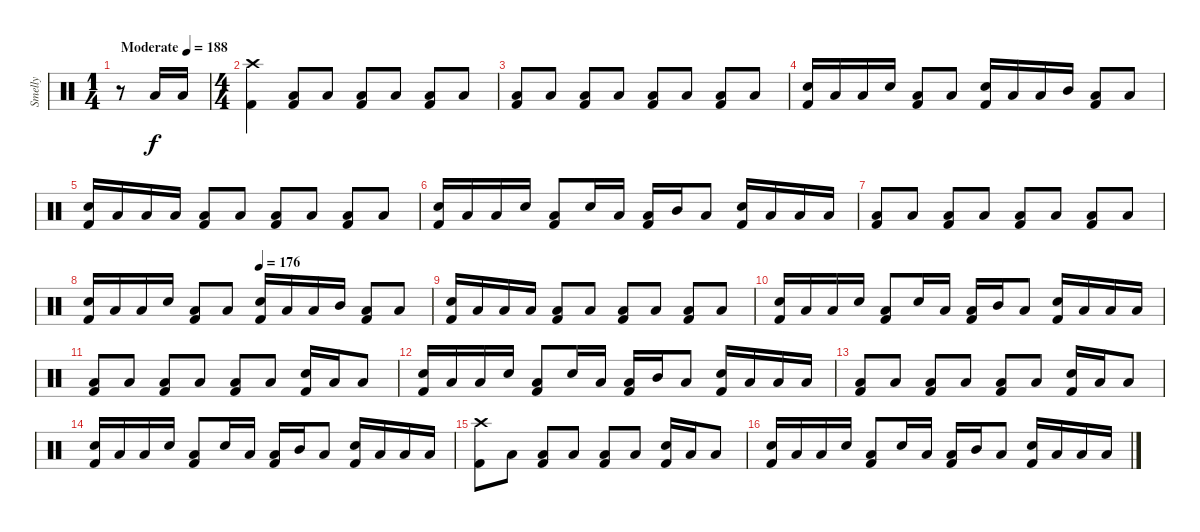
\track ("Smelly" "Smelly") {instrument percussion}
\staff {score}
\articulation defaults
\ts (1 4)
\tempo (188 "Moderate")
\clef neutral
\ks c
r.8{dy f} "Low Floor Tom (hit)".16 "Low Floor Tom (hit)".16 |
\ts (4 4)
("Crash high (hit)" "Kick (hit) 2").4 ("Low Floor Tom (hit)" "Kick (hit) 2").8 "Low Floor Tom (hit)".8 ("Low Floor Tom (hit)" "Kick (hit) 2").8 "Low Floor Tom (hit)".8 ("Low Floor Tom (hit)" "Kick (hit) 2").8 "Low Floor Tom (hit)".8 |
("Low Floor Tom (hit)" "Kick (hit) 2").8 "Low Floor Tom (hit)".8 ("Low Floor Tom (hit)" "Kick (hit) 2").8 "Low Floor Tom (hit)".8 ("Low Floor Tom (hit)" "Kick (hit) 2").8 "Low Floor Tom (hit)".8 ("Low Floor Tom (hit)" "Kick (hit) 2").8 "Low Floor Tom (hit)".8 |
("Electric Snare (hit)" "Kick (hit) 2").16 "Low Tom (hit)".16 "Low Floor Tom (hit)".16 "Electric Snare (hit)".16 ("Low Floor Tom (hit)" "Kick (hit) 2").8 "Low Floor Tom (hit)".8 ("Electric Snare (hit)" "Kick (hit) 2").16 "Low Tom (hit)".16 "Low Floor Tom (hit)".16 "Mid Tom (hit)".16 ("Low Floor Tom (hit)" "Kick (hit) 2").8 "Low Floor Tom (hit)".8 |
("Electric Snare (hit)" "Kick (hit) 2").16 "Low Tom (hit)".16 "Low Floor Tom (hit)".16 "Low Floor Tom (hit)".16 ("Low Floor Tom (hit)" "Kick (hit) 2").8 "Low Floor Tom (hit)".8 ("Low Floor Tom (hit)" "Kick (hit) 2").8 "Low Floor Tom (hit)".8 ("Low Floor Tom (hit)" "Kick (hit) 2").8 "Low Floor Tom (hit)".8 |
("Electric Snare (hit)" "Kick (hit) 2").16 "Low Tom (hit)".16 "Low Floor Tom (hit)".16 "Electric Snare (hit)".16 ("Low Floor Tom (hit)" "Kick (hit) 2").8 "Electric Snare (hit)".16 "Low Tom (hit)".16 ("Low Floor Tom (hit)" "Kick (hit) 2").16 "Mid Tom (hit)".16 "Low Floor Tom (hit)".8 ("Electric Snare (hit)" "Kick (hit) 2").16 "Low Tom (hit)".16 "Low Floor Tom (hit)".16 "Low Floor Tom (hit)".16 |
("Low Floor Tom (hit)" "Kick (hit) 2").8 "Low Floor Tom (hit)".8 ("Low Floor Tom (hit)" "Kick (hit) 2").8 "Low Floor Tom (hit)".8 ("Low Floor Tom (hit)" "Kick (hit) 2").8 "Low Floor Tom (hit)".8 ("Low Floor Tom (hit)" "Kick (hit) 2").8 "Low Floor Tom (hit)".8 |
\tempo (176 0.5)
("Electric Snare (hit)" "Kick (hit) 2").16 "Low Tom (hit)".16 "Low Floor Tom (hit)".16 "Electric Snare (hit)".16 ("Low Floor Tom (hit)" "Kick (hit) 2").8 "Low Floor Tom (hit)".8 ("Electric Snare (hit)" "Kick (hit) 2").16 "Low Tom (hit)".16 "Low Floor Tom (hit)".16 "Mid Tom (hit)".16 ("Low Floor Tom (hit)" "Kick (hit) 2").8 "Low Floor Tom (hit)".8 |
("Electric Snare (hit)" "Kick (hit) 2").16 "Low Tom (hit)".16 "Low Floor Tom (hit)".16 "Low Floor Tom (hit)".16 ("Low Floor Tom (hit)" "Kick (hit) 2").8 "Low Floor Tom (hit)".8 ("Low Floor Tom (hit)" "Kick (hit) 2").8 "Low Floor Tom (hit)".8 ("Low Floor Tom (hit)" "Kick (hit) 2").8 "Low Floor Tom (hit)".8 |
("Electric Snare (hit)" "Kick (hit) 2").16 "Low Tom (hit)".16 "Low Floor Tom (hit)".16 "Electric Snare (hit)".16 ("Low Floor Tom (hit)" "Kick (hit) 2").8 "Electric Snare (hit)".16 "Low Tom (hit)".16 ("Low Floor Tom (hit)" "Kick (hit) 2").16 "Mid Tom (hit)".16 "Low Floor Tom (hit)".8 ("Electric Snare (hit)" "Kick (hit) 2").16 "Low Tom (hit)".16 "Low Floor Tom (hit)".16 "Low Floor Tom (hit)".16 |
("Low Floor Tom (hit)" "Kick (hit) 2").8 "Low Floor Tom (hit)".8 ("Low Floor Tom (hit)" "Kick (hit) 2").8 "Low Floor Tom (hit)".8 ("Low Floor Tom (hit)" "Kick (hit) 2").8 "Low Floor Tom (hit)".8 ("Electric Snare (hit)" "Kick (hit) 2").16 "Low Tom (hit)".16 "Low Floor Tom (hit)".8 |
("Electric Snare (hit)" "Kick (hit) 2").16 "Low Tom (hit)".16 "Low Floor Tom (hit)".16 "Electric Snare (hit)".16 ("Low Floor Tom (hit)" "Kick (hit) 2").8 "Electric Snare (hit)".16 "Low Tom (hit)".16 ("Low Floor Tom (hit)" "Kick (hit) 2").16 "Mid Tom (hit)".16 "Low Floor Tom (hit)".8 ("Electric Snare (hit)" "Kick (hit) 2").16 "Low Tom (hit)".16 "Low Floor Tom (hit)".16 "Low Floor Tom (hit)".16 |
("Low Floor Tom (hit)" "Kick (hit) 2").8 "Low Floor Tom (hit)".8 ("Low Floor Tom (hit)" "Kick (hit) 2").8 "Low Floor Tom (hit)".8 ("Low Floor Tom (hit)" "Kick (hit) 2").8 "Low Floor Tom (hit)".8 ("Electric Snare (hit)" "Kick (hit) 2").16 "Low Tom (hit)".16 "Low Floor Tom (hit)".8 |
("Electric Snare (hit)" "Kick (hit) 2").16 "Low Tom (hit)".16 "Low Floor Tom (hit)".16 "Electric Snare (hit)".16 ("Low Floor Tom (hit)" "Kick (hit) 2").8 "Electric Snare (hit)".16 "Low Tom (hit)".16 ("Low Floor Tom (hit)" "Kick (hit) 2").16 "Mid Tom (hit)".16 "Low Floor Tom (hit)".8 ("Electric Snare (hit)" "Kick (hit) 2").16 "Low Tom (hit)".16 "Low Floor Tom (hit)".16 "Low Floor Tom (hit)".16 |
("Crash high (hit)" "Kick (hit) 2").8 "Low Floor Tom (hit)".8 ("Low Floor Tom (hit)" "Kick (hit) 2").8 "Low Floor Tom (hit)".8 ("Low Floor Tom (hit)" "Kick (hit) 2").8 "Low Floor Tom (hit)".8 ("Electric Snare (hit)" "Kick (hit) 2").16 "Low Tom (hit)".16 "Low Floor Tom (hit)".8 |
("Electric Snare (hit)" "Kick (hit) 2").16 "Low Tom (hit)".16 "Low Floor Tom (hit)".16 "Electric Snare (hit)".16 ("Low Floor Tom (hit)" "Kick (hit) 2").8 "Electric Snare (hit)".16 "Low Tom (hit)".16 ("Low Floor Tom (hit)" "Kick (hit) 2").16 "Mid Tom (hit)".16 "Low Floor Tom (hit)".8 ("Electric Snare (hit)" "Kick (hit) 2").16 "Low Tom (hit)".16 "Low Floor Tom (hit)".16 "Low Floor Tom (hit)".16
